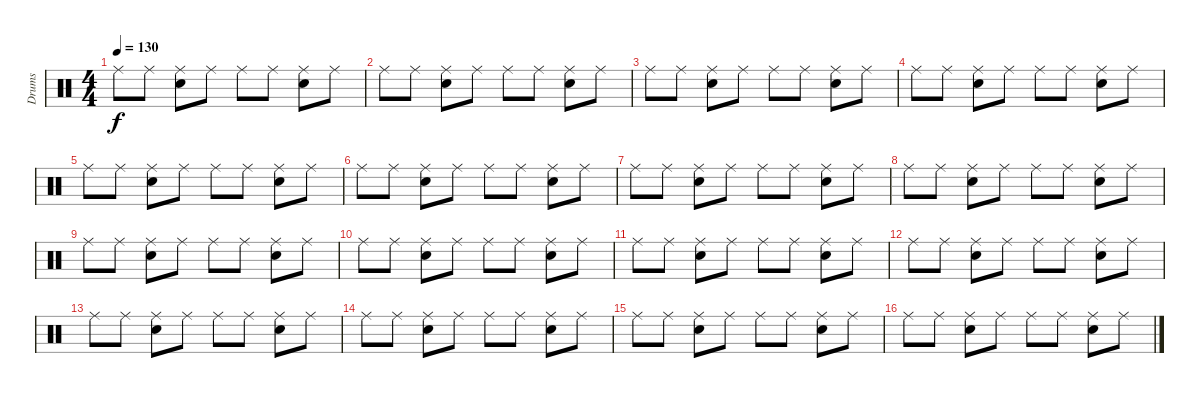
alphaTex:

\track ("Drums" "Drums") {instrument percussion}
\staff {score}
\articulation defaults
\ts (4 4)
\tempo 130
\clef neutral
\ks c "Ride (middle)".8{dy f} "Ride (middle)".8
("Ride (middle)" "Snare (hit) 2").8 "Ride (middle)".8 "Ride (middle)".8 "Ride (middle)".8 ("Ride (middle)" "Snare (hit) 2").8 "Ride (middle)".8 |
"Ride (middle)".8 "Ride (middle)".8 ("Ride (middle)" "Snare (hit) 2").8 "Ride (middle)".8 "Ride (middle)".8 "Ride (middle)".8 ("Ride (middle)" "Snare (hit) 2").8 "Ride (middle)".8 |
"Ride (middle)".8 "Ride (middle)".8 ("Ride (middle)" "Snare (hit) 2").8 "Ride (middle)".8 "Ride (middle)".8 "Ride (middle)".8 ("Ride (middle)" "Snare (hit) 2").8 "Ride (middle)".8 |
"Ride (middle)".8 "Ride (middle)".8 ("Ride (middle)" "Snare (hit) 2").8 "Ride (middle)".8 "Ride (middle)".8 "Ride (middle)".8 ("Ride (middle)" "Snare (hit) 2").8 "Ride (middle)".8 |
"Ride (middle)".8 "Ride (middle)".8 ("Ride (middle)" "Snare (hit) 2").8 "Ride (middle)".8 "Ride (middle)".8 "Ride (middle)".8 ("Ride (middle)" "Snare (hit) 2").8 "Ride (middle)".8 |
"Ride (middle)".8 "Ride (middle)".8 ("Ride (middle)" "Snare (hit) 2").8 "Ride (middle)".8 "Ride (middle)".8 "Ride (middle)".8 ("Ride (middle)" "Snare (hit) 2").8 "Ride (middle)".8 |
"Ride (middle)".8 "Ride (middle)".8 ("Ride (middle)" "Snare (hit) 2").8 "Ride (middle)".8 "Ride (middle)".8 "Ride (middle)".8 ("Ride (middle)" "Snare (hit) 2").8 "Ride (middle)".8 |
"Ride (middle)".8 "Ride (middle)".8 ("Ride (middle)" "Snare (hit) 2").8 "Ride (middle)".8 "Ride (middle)".8 "Ride (middle)".8 ("Ride (middle)" "Snare (hit) 2").8 "Ride (middle)".8 |
"Ride (middle)".8 "Ride (middle)".8 ("Ride (middle)" "Snare (hit) 2").8 "Ride (middle)".8 "Ride (middle)".8 "Ride (middle)".8 ("Ride (middle)" "Snare (hit) 2").8 "Ride (middle)".8 |
"Ride (middle)".8 "Ride (middle)".8 ("Ride (middle)" "Snare (hit) 2").8 "Ride (middle)".8 "Ride (middle)".8 "Ride (middle)".8 ("Ride (middle)" "Snare (hit) 2").8 "Ride (middle)".8 |
"Ride (middle)".8 "Ride (middle)".8 ("Ride (middle)" "Snare (hit) 2").8 "Ride (middle)".8 "Ride (middle)".8 "Ride (middle)".8 ("Ride (middle)" "Snare (hit) 2").8 "Ride (middle)".8 |
"Ride (middle)".8 "Ride (middle)".8 ("Ride (middle)" "Snare (hit) 2").8 "Ride (middle)".8 "Ride (middle)".8 "Ride (middle)".8 ("Ride (middle)" "Snare (hit) 2").8 "Ride (middle)".8 |
"Ride (middle)".8 "Ride (middle)".8 ("Ride (middle)" "Snare (hit) 2").8 "Ride (middle)".8 "Ride (middle)".8 "Ride (middle)".8 ("Ride (middle)" "Snare (hit) 2").8 "Ride (middle)".8 |
"Ride (middle)".8 "Ride (middle)".8 ("Ride (middle)" "Snare (hit) 2").8 "Ride (middle)".8 "Ride (middle)".8 "Ride (middle)".8 ("Ride (middle)" "Snare (hit) 2").8 "Ride (middle)".8 |
"Ride (middle)".8 "Ride (middle)".8 ("Ride (middle)" "Snare (hit) 2").8 "Ride (middle)".8 "Ride (middle)".8 "Ride (middle)".8 ("Ride (middle)" "Snare (hit) 2").8 "Ride (middle)".8 |
"Ride (middle)".8 "Ride (middle)".8 ("Ride (middle)" "Snare (hit) 2").8 "Ride (middle)".8 "Ride (middle)".8 "Ride (middle)".8 ("Ride (middle)" "Snare (hit) 2").8 "Ride (middle)".8
